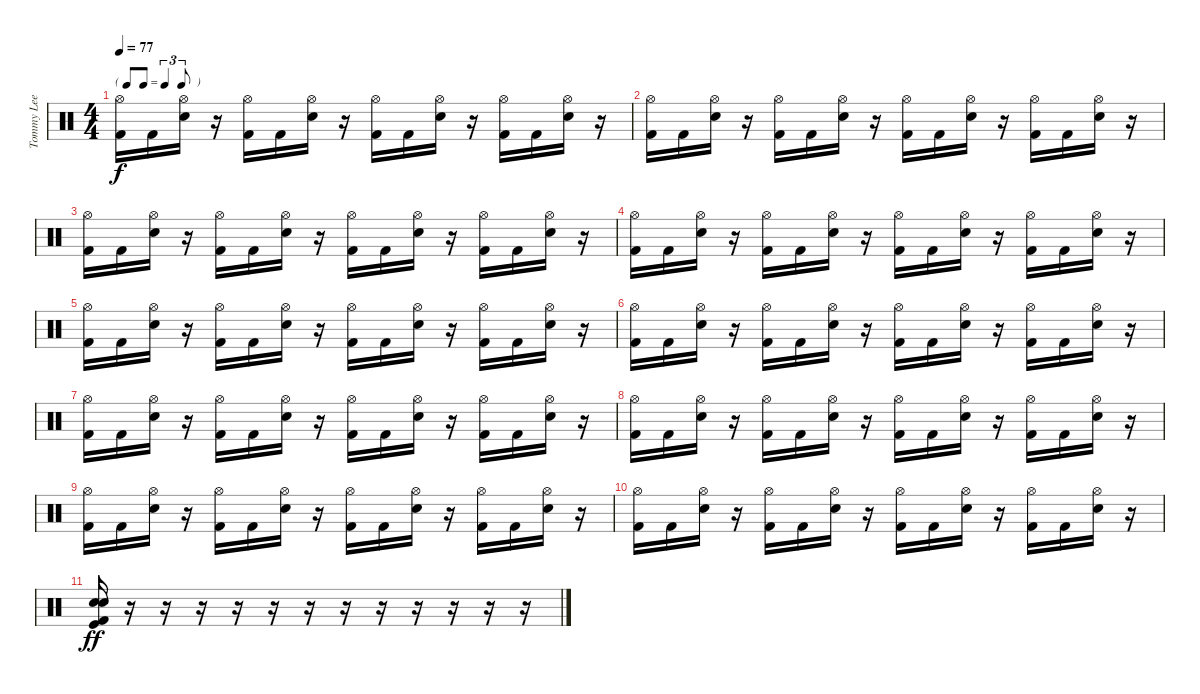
\track ("Tommy Lee" "Tommy Lee") {instrument percussion}
\staff {score}
\articulation defaults
\ts (4 4)
\tf triplet8th
\tempo 77
\clef neutral
\ks c
("Hi-Hat (open)" "Kick (hit) 2").16{dy f} "Kick (hit) 2".16 ("Hi-Hat (open)" "Electric Snare (hit)").16 r.16 ("Hi-Hat (open)" "Kick (hit) 2").16 "Kick (hit) 2".16 ("Hi-Hat (open)" "Electric Snare (hit)").16 r.16 ("Hi-Hat (open)" "Kick (hit) 2").16 "Kick (hit) 2".16 ("Hi-Hat (open)" "Electric Snare (hit)").16 r.16 ("Hi-Hat (open)" "Kick (hit) 2").16 "Kick (hit) 2".16 ("Hi-Hat (open)" "Electric Snare (hit)").16 r.16 |
("Hi-Hat (open)" "Kick (hit) 2").16 "Kick (hit) 2".16 ("Hi-Hat (open)" "Electric Snare (hit)").16 r.16 ("Hi-Hat (open)" "Kick (hit) 2").16 "Kick (hit) 2".16 ("Hi-Hat (open)" "Electric Snare (hit)").16 r.16 ("Hi-Hat (open)" "Kick (hit) 2").16 "Kick (hit) 2".16 ("Hi-Hat (open)" "Electric Snare (hit)").16 r.16 ("Hi-Hat (open)" "Kick (hit) 2").16 "Kick (hit) 2".16 ("Hi-Hat (open)" "Electric Snare (hit)").16 r.16 |
("Hi-Hat (open)" "Kick (hit) 2").16 "Kick (hit) 2".16 ("Hi-Hat (open)" "Electric Snare (hit)").16 r.16 ("Hi-Hat (open)" "Kick (hit) 2").16 "Kick (hit) 2".16 ("Hi-Hat (open)" "Electric Snare (hit)").16 r.16 ("Hi-Hat (open)" "Kick (hit) 2").16 "Kick (hit) 2".16 ("Hi-Hat (open)" "Electric Snare (hit)").16 r.16 ("Hi-Hat (open)" "Kick (hit) 2").16 "Kick (hit) 2".16 ("Hi-Hat (open)" "Electric Snare (hit)").16 r.16 |
("Hi-Hat (open)" "Kick (hit) 2").16 "Kick (hit) 2".16 ("Hi-Hat (open)" "Electric Snare (hit)").16 r.16 ("Hi-Hat (open)" "Kick (hit) 2").16 "Kick (hit) 2".16 ("Hi-Hat (open)" "Electric Snare (hit)").16 r.16 ("Hi-Hat (open)" "Kick (hit) 2").16 "Kick (hit) 2".16 ("Hi-Hat (open)" "Electric Snare (hit)").16 r.16 ("Hi-Hat (open)" "Kick (hit) 2").16 "Kick (hit) 2".16 ("Hi-Hat (open)" "Electric Snare (hit)").16 r.16 |
("Hi-Hat (open)" "Kick (hit) 2").16 "Kick (hit) 2".16 ("Hi-Hat (open)" "Electric Snare (hit)").16 r.16 ("Hi-Hat (open)" "Kick (hit) 2").16 "Kick (hit) 2".16 ("Hi-Hat (open)" "Electric Snare (hit)").16 r.16 ("Hi-Hat (open)" "Kick (hit) 2").16 "Kick (hit) 2".16 ("Hi-Hat (open)" "Electric Snare (hit)").16 r.16 ("Hi-Hat (open)" "Kick (hit) 2").16 "Kick (hit) 2".16 ("Hi-Hat (open)" "Electric Snare (hit)").16 r.16 |
("Hi-Hat (open)" "Kick (hit) 2").16 "Kick (hit) 2".16 ("Hi-Hat (open)" "Electric Snare (hit)").16 r.16 ("Hi-Hat (open)" "Kick (hit) 2").16 "Kick (hit) 2".16 ("Hi-Hat (open)" "Electric Snare (hit)").16 r.16 ("Hi-Hat (open)" "Kick (hit) 2").16 "Kick (hit) 2".16 ("Hi-Hat (open)" "Electric Snare (hit)").16 r.16 ("Hi-Hat (open)" "Kick (hit) 2").16 "Kick (hit) 2".16 ("Hi-Hat (open)" "Electric Snare (hit)").16 r.16 |
("Hi-Hat (open)" "Kick (hit) 2").16 "Kick (hit) 2".16 ("Hi-Hat (open)" "Electric Snare (hit)").16 r.16 ("Hi-Hat (open)" "Kick (hit) 2").16 "Kick (hit) 2".16 ("Hi-Hat (open)" "Electric Snare (hit)").16 r.16 ("Hi-Hat (open)" "Kick (hit) 2").16 "Kick (hit) 2".16 ("Hi-Hat (open)" "Electric Snare (hit)").16 r.16 ("Hi-Hat (open)" "Kick (hit) 2").16 "Kick (hit) 2".16 ("Hi-Hat (open)" "Electric Snare (hit)").16 r.16 |
("Hi-Hat (open)" "Kick (hit) 2").16 "Kick (hit) 2".16 ("Hi-Hat (open)" "Electric Snare (hit)").16 r.16 ("Hi-Hat (open)" "Kick (hit) 2").16 "Kick (hit) 2".16 ("Hi-Hat (open)" "Electric Snare (hit)").16 r.16 ("Hi-Hat (open)" "Kick (hit) 2").16 "Kick (hit) 2".16 ("Hi-Hat (open)" "Electric Snare (hit)").16 r.16 ("Hi-Hat (open)" "Kick (hit) 2").16 "Kick (hit) 2".16 ("Hi-Hat (open)" "Electric Snare (hit)").16 r.16 |
("Hi-Hat (open)" "Kick (hit) 2").16 "Kick (hit) 2".16 ("Hi-Hat (open)" "Electric Snare (hit)").16 r.16 ("Hi-Hat (open)" "Kick (hit) 2").16 "Kick (hit) 2".16 ("Hi-Hat (open)" "Electric Snare (hit)").16 r.16 ("Hi-Hat (open)" "Kick (hit) 2").16 "Kick (hit) 2".16 ("Hi-Hat (open)" "Electric Snare (hit)").16 r.16 ("Hi-Hat (open)" "Kick (hit) 2").16 "Kick (hit) 2".16 ("Hi-Hat (open)" "Electric Snare (hit)").16 r.16 |
("Hi-Hat (open)" "Kick (hit) 2").16 "Kick (hit) 2".16 ("Hi-Hat (open)" "Electric Snare (hit)").16 r.16 ("Hi-Hat (open)" "Kick (hit) 2").16 "Kick (hit) 2".16 ("Hi-Hat (open)" "Electric Snare (hit)").16 r.16 ("Hi-Hat (open)" "Kick (hit) 2").16 "Kick (hit) 2".16 ("Hi-Hat (open)" "Electric Snare (hit)").16 r.16 ("Hi-Hat (open)" "Kick (hit) 2").16 "Kick (hit) 2".16 ("Hi-Hat (open)" "Electric Snare (hit)").16 r.16 |
("Snare (hit) 2" "Kick (hit) 2" "Kick (hit)" "Electric Snare (hit)").16{dy ff} r.16 r.16 r.16 r.16 r.16 r.16 r.16 r.16 r.16 r.16 r.16 r.16
